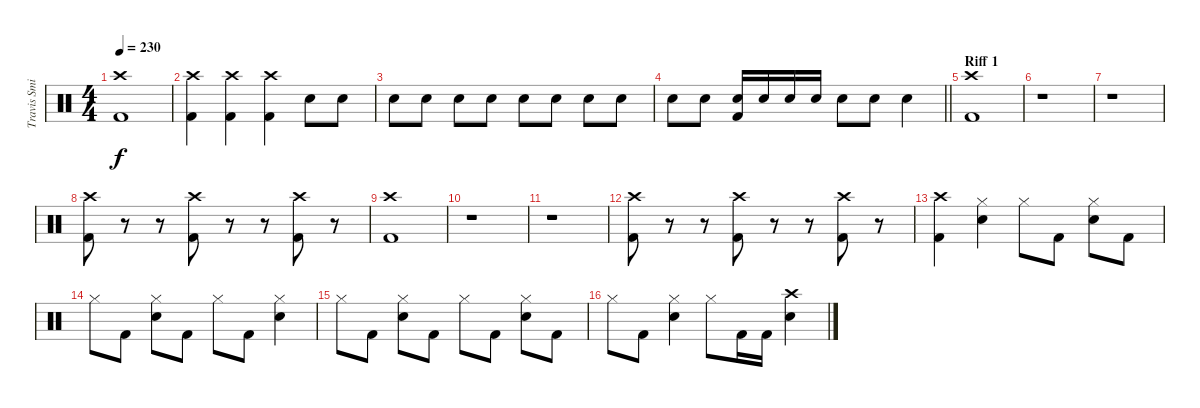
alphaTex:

\track ("Travis Smith (Drums)" "Travis Smi") {instrument percussion}
\staff {score}
\articulation defaults
\ts (4 4)
\tempo 230
\clef neutral
\ks c
("Crash high (hit)" "Kick (hit) 2").1{dy f} |
("Crash high (hit)" "Kick (hit) 2").4 ("Crash high (hit)" "Kick (hit) 2").4 ("Crash high (hit)" "Kick (hit) 2").4 "Electric Snare (hit)".8 "Electric Snare (hit)".8 |
"Electric Snare (hit)".8 "Electric Snare (hit)".8 "Electric Snare (hit)".8 "Electric Snare (hit)".8 "Electric Snare (hit)".8 "Electric Snare (hit)".8 "Electric Snare (hit)".8 "Electric Snare (hit)".8 |
\barLineRight lightlight "Electric Snare (hit)".8 "Electric Snare (hit)".8
("Electric Snare (hit)" "Kick (hit) 2").16 "Electric Snare (hit)".16 "Electric Snare (hit)".16 "Electric Snare (hit)".16 "Electric Snare (hit)".8 "Electric Snare (hit)".8 "Electric Snare (hit)".4 |
\section ("" "Riff 1")
("Crash high (hit)" "Kick (hit) 2").1 |
r.1 |
r.1 |
("Crash high (hit)" "Kick (hit) 2").8 r.8 r.8 ("Crash high (hit)" "Kick (hit) 2").8 r.8 r.8 ("Crash high (hit)" "Kick (hit) 2").8 r.8 |
("Crash high (hit)" "Kick (hit) 2").1 |
r.1 |
r.1 |
("Crash high (hit)" "Kick (hit) 2").8 r.8 r.8 ("Crash high (hit)" "Kick (hit) 2").8 r.8 r.8 ("Crash high (hit)" "Kick (hit) 2").8 r.8 |
("Crash high (hit)" "Kick (hit) 2").4 ("Hi-Hat (closed)" "Electric Snare (hit)").4 "Hi-Hat (closed)".8 "Kick (hit) 2".8 ("Hi-Hat (closed)" "Electric Snare (hit)").8 "Kick (hit) 2".8 |
"Hi-Hat (closed)".8 "Kick (hit) 2".8 ("Hi-Hat (closed)" "Electric Snare (hit)").8 "Kick (hit) 2".8 "Hi-Hat (closed)".8 "Kick (hit) 2".8 ("Hi-Hat (closed)" "Electric Snare (hit)").4 |
"Hi-Hat (closed)".8 "Kick (hit) 2".8 ("Hi-Hat (closed)" "Electric Snare (hit)").8 "Kick (hit) 2".8 "Hi-Hat (closed)".8 "Kick (hit) 2".8 ("Hi-Hat (closed)" "Electric Snare (hit)").8 "Kick (hit) 2".8 |
"Hi-Hat (closed)".8 "Kick (hit) 2".8 ("Hi-Hat (closed)" "Electric Snare (hit)").4 "Hi-Hat (closed)".8 "Kick (hit) 2".16 "Kick (hit) 2".16 ("Crash high (hit)" "Electric Snare (hit)").4
